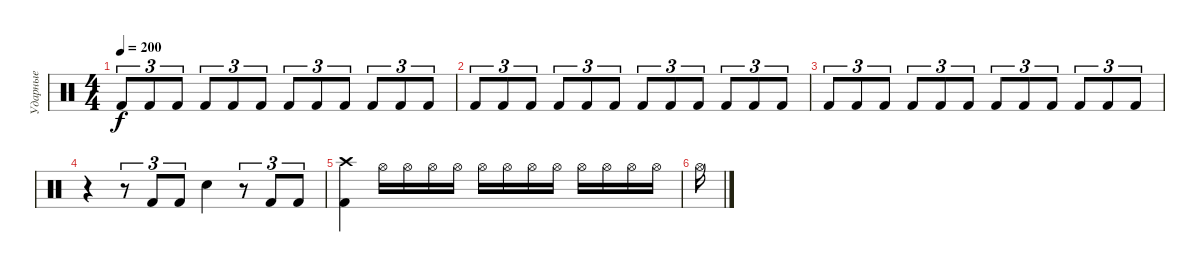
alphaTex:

\track ("Ударные" "Ударные") {instrument percussion}
\staff {score}
\articulation defaults
\ts (4 4)
\tempo 200
\clef neutral
\ks c "Kick (hit) 2".8{tu (3 2) dy f} "Kick (hit) 2".8{tu (3 2)} "Kick (hit) 2".8{tu (3 2)} "Kick (hit) 2".8{tu (3 2)} "Kick (hit) 2".8{tu (3 2)} "Kick (hit) 2".8{tu (3 2)} "Kick (hit) 2".8{tu (3 2)} "Kick (hit) 2".8{tu (3 2)} "Kick (hit) 2".8{tu (3 2)} "Kick (hit) 2".8{tu (3 2)} "Kick (hit) 2".8{tu (3 2)} "Kick (hit) 2".8{tu (3 2)}
|
"Kick (hit) 2".8{tu (3 2)} "Kick (hit) 2".8{tu (3 2)} "Kick (hit) 2".8{tu (3 2)} "Kick (hit) 2".8{tu (3 2)} "Kick (hit) 2".8{tu (3 2)} "Kick (hit) 2".8{tu (3 2)} "Kick (hit) 2".8{tu (3 2)} "Kick (hit) 2".8{tu (3 2)} "Kick (hit) 2".8{tu (3 2)} "Kick (hit) 2".8{tu (3 2)} "Kick (hit) 2".8{tu (3 2)} "Kick (hit) 2".8{tu (3 2)} |
"Kick (hit) 2".8{tu (3 2)} "Kick (hit) 2".8{tu (3 2)} "Kick (hit) 2".8{tu (3 2)} "Kick (hit) 2".8{tu (3 2)} "Kick (hit) 2".8{tu (3 2)} "Kick (hit) 2".8{tu (3 2)} "Kick (hit) 2".8{tu (3 2)} "Kick (hit) 2".8{tu (3 2)} "Kick (hit) 2".8{tu (3 2)} "Kick (hit) 2".8{tu (3 2)} "Kick (hit) 2".8{tu (3 2)} "Kick (hit) 2".8{tu (3 2)} |
r.4 r.8{tu (3 2)} "Kick (hit) 2".8{tu (3 2)} "Kick (hit) 2".8{tu (3 2)} "Snare (hit) 2".4 r.8{tu (3 2)} "Kick (hit) 2".8{tu (3 2)} "Kick (hit) 2".8{tu (3 2)} |
("Kick (hit) 2" "Crash high (hit)").4 "Hi-Hat (open)".16 "Hi-Hat (open)".16 "Hi-Hat (open)".16 "Hi-Hat (open)".16 "Hi-Hat (open)".16 "Hi-Hat (open)".16 "Hi-Hat (open)".16 "Hi-Hat (open)".16 "Hi-Hat (open)".16 "Hi-Hat (open)".16 "Hi-Hat (open)".16 "Hi-Hat (open)".16 |
"Hi-Hat (open)".16
